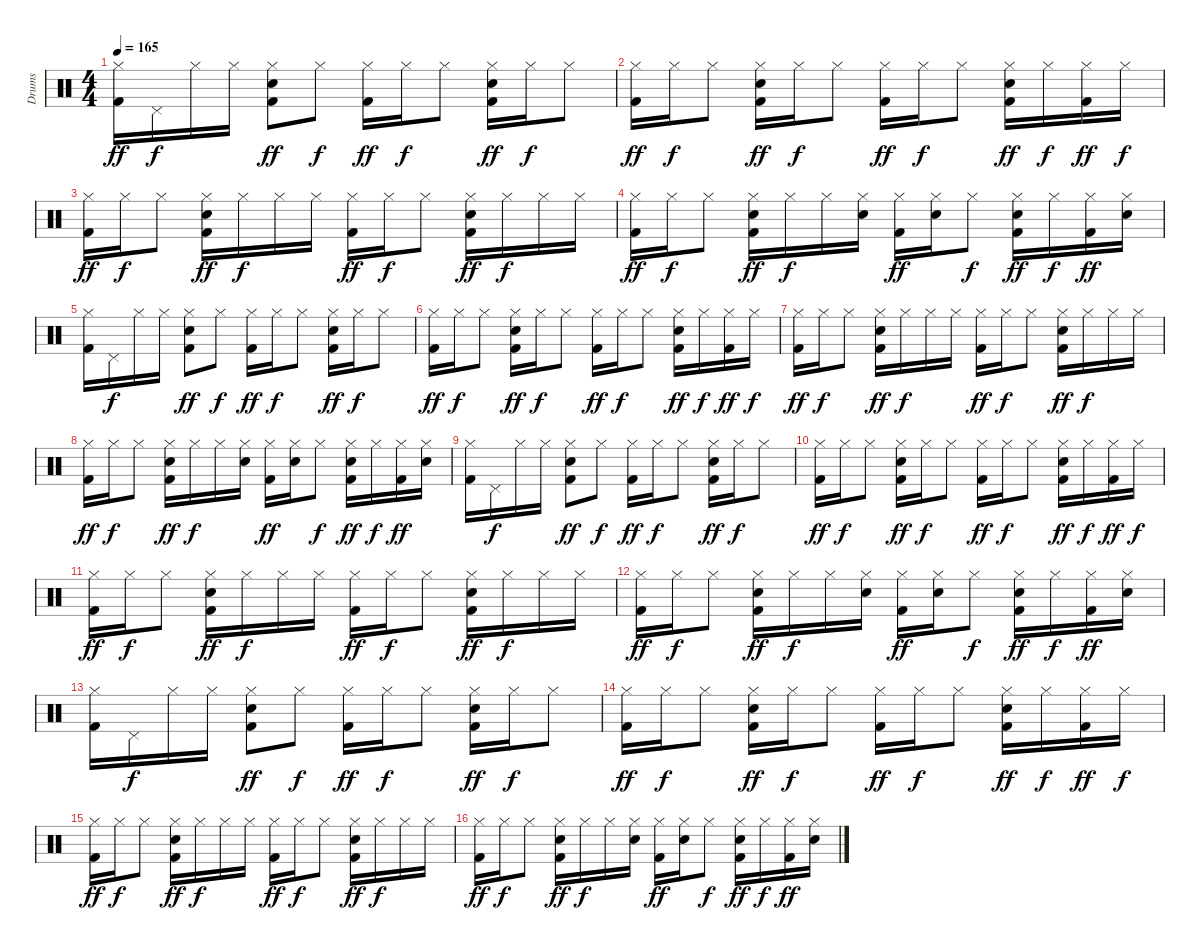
\track ("Drums" "Drums") {instrument percussion}
\staff {score}
\articulation defaults
\ts (4 4)
\tempo 165
\clef neutral
\ks c
("Kick (hit) 2" "Hi-Hat (closed)").16{dy ff} "Pedal Hi-Hat (hit)".16{dy f} "Hi-Hat (closed)".16 "Hi-Hat (closed)".16 ("Kick (hit) 2" "Snare (hit) 2" "Hi-Hat (closed)").8{dy ff} "Hi-Hat (closed)".8{dy f} ("Kick (hit) 2" "Hi-Hat (closed)").16{dy ff} "Hi-Hat (closed)".16{dy f} "Hi-Hat (closed)".8 ("Kick (hit) 2" "Snare (hit) 2" "Hi-Hat (closed)").16{dy ff} "Hi-Hat (closed)".16{dy f} "Hi-Hat (closed)".8 |
("Kick (hit) 2" "Hi-Hat (closed)").16{dy ff} "Hi-Hat (closed)".16{dy f} "Hi-Hat (closed)".8 ("Kick (hit) 2" "Snare (hit) 2" "Hi-Hat (closed)").16{dy ff} "Hi-Hat (closed)".16{dy f} "Hi-Hat (closed)".8 ("Kick (hit) 2" "Hi-Hat (closed)").16{dy ff} "Hi-Hat (closed)".16{dy f} "Hi-Hat (closed)".8 ("Kick (hit) 2" "Snare (hit) 2" "Hi-Hat (closed)").16{dy ff} "Hi-Hat (closed)".16{dy f} ("Kick (hit) 2" "Hi-Hat (closed)").16{dy ff} "Hi-Hat (closed)".16{dy f} |
("Kick (hit) 2" "Hi-Hat (closed)").16{dy ff} "Hi-Hat (closed)".16{dy f} "Hi-Hat (closed)".8 ("Kick (hit) 2" "Snare (hit) 2" "Hi-Hat (closed)").16{dy ff} "Hi-Hat (closed)".16{dy f} "Hi-Hat (closed)".16 "Hi-Hat (closed)".16 ("Kick (hit) 2" "Hi-Hat (closed)").16{dy ff} "Hi-Hat (closed)".16{dy f} "Hi-Hat (closed)".8 ("Kick (hit) 2" "Snare (hit) 2" "Hi-Hat (closed)").16{dy ff} "Hi-Hat (closed)".16{dy f} "Hi-Hat (closed)".16 "Hi-Hat (closed)".16 |
("Kick (hit) 2" "Hi-Hat (closed)").16{dy ff} "Hi-Hat (closed)".16{dy f} "Hi-Hat (closed)".8 ("Kick (hit) 2" "Snare (hit) 2" "Hi-Hat (closed)").16{dy ff} "Hi-Hat (closed)".16{dy f} "Hi-Hat (closed)".16 ("Snare (hit) 2" "Hi-Hat (closed)").16 ("Kick (hit) 2" "Hi-Hat (closed)").16{dy ff} ("Snare (hit) 2" "Hi-Hat (closed)").16 "Hi-Hat (closed)".8{dy f} ("Kick (hit) 2" "Snare (hit) 2" "Hi-Hat (closed)").16{dy ff} "Hi-Hat (closed)".16{dy f} ("Kick (hit) 2" "Hi-Hat (closed)").16{dy ff} ("Snare (hit) 2" "Hi-Hat (closed)").16 |
("Kick (hit) 2" "Hi-Hat (closed)").16 "Pedal Hi-Hat (hit)".16{dy f} "Hi-Hat (closed)".16 "Hi-Hat (closed)".16 ("Kick (hit) 2" "Snare (hit) 2" "Hi-Hat (closed)").8{dy ff} "Hi-Hat (closed)".8{dy f} ("Kick (hit) 2" "Hi-Hat (closed)").16{dy ff} "Hi-Hat (closed)".16{dy f} "Hi-Hat (closed)".8 ("Kick (hit) 2" "Snare (hit) 2" "Hi-Hat (closed)").16{dy ff} "Hi-Hat (closed)".16{dy f} "Hi-Hat (closed)".8 |
("Kick (hit) 2" "Hi-Hat (closed)").16{dy ff} "Hi-Hat (closed)".16{dy f} "Hi-Hat (closed)".8 ("Kick (hit) 2" "Snare (hit) 2" "Hi-Hat (closed)").16{dy ff} "Hi-Hat (closed)".16{dy f} "Hi-Hat (closed)".8 ("Kick (hit) 2" "Hi-Hat (closed)").16{dy ff} "Hi-Hat (closed)".16{dy f} "Hi-Hat (closed)".8 ("Kick (hit) 2" "Snare (hit) 2" "Hi-Hat (closed)").16{dy ff} "Hi-Hat (closed)".16{dy f} ("Kick (hit) 2" "Hi-Hat (closed)").16{dy ff} "Hi-Hat (closed)".16{dy f} |
("Kick (hit) 2" "Hi-Hat (closed)").16{dy ff} "Hi-Hat (closed)".16{dy f} "Hi-Hat (closed)".8 ("Kick (hit) 2" "Snare (hit) 2" "Hi-Hat (closed)").16{dy ff} "Hi-Hat (closed)".16{dy f} "Hi-Hat (closed)".16 "Hi-Hat (closed)".16 ("Kick (hit) 2" "Hi-Hat (closed)").16{dy ff} "Hi-Hat (closed)".16{dy f} "Hi-Hat (closed)".8 ("Kick (hit) 2" "Snare (hit) 2" "Hi-Hat (closed)").16{dy ff} "Hi-Hat (closed)".16{dy f} "Hi-Hat (closed)".16 "Hi-Hat (closed)".16 |
("Kick (hit) 2" "Hi-Hat (closed)").16{dy ff} "Hi-Hat (closed)".16{dy f} "Hi-Hat (closed)".8 ("Kick (hit) 2" "Snare (hit) 2" "Hi-Hat (closed)").16{dy ff} "Hi-Hat (closed)".16{dy f} "Hi-Hat (closed)".16 ("Snare (hit) 2" "Hi-Hat (closed)").16 ("Kick (hit) 2" "Hi-Hat (closed)").16{dy ff} ("Snare (hit) 2" "Hi-Hat (closed)").16 "Hi-Hat (closed)".8{dy f} ("Kick (hit) 2" "Snare (hit) 2" "Hi-Hat (closed)").16{dy ff} "Hi-Hat (closed)".16{dy f} ("Kick (hit) 2" "Hi-Hat (closed)").16{dy ff} ("Snare (hit) 2" "Hi-Hat (closed)").16 |
("Kick (hit) 2" "Hi-Hat (closed)").16 "Pedal Hi-Hat (hit)".16{dy f} "Hi-Hat (closed)".16 "Hi-Hat (closed)".16 ("Kick (hit) 2" "Snare (hit) 2" "Hi-Hat (closed)").8{dy ff} "Hi-Hat (closed)".8{dy f} ("Kick (hit) 2" "Hi-Hat (closed)").16{dy ff} "Hi-Hat (closed)".16{dy f} "Hi-Hat (closed)".8 ("Kick (hit) 2" "Snare (hit) 2" "Hi-Hat (closed)").16{dy ff} "Hi-Hat (closed)".16{dy f} "Hi-Hat (closed)".8 |
("Kick (hit) 2" "Hi-Hat (closed)").16{dy ff} "Hi-Hat (closed)".16{dy f} "Hi-Hat (closed)".8 ("Kick (hit) 2" "Snare (hit) 2" "Hi-Hat (closed)").16{dy ff} "Hi-Hat (closed)".16{dy f} "Hi-Hat (closed)".8 ("Kick (hit) 2" "Hi-Hat (closed)").16{dy ff} "Hi-Hat (closed)".16{dy f} "Hi-Hat (closed)".8 ("Kick (hit) 2" "Snare (hit) 2" "Hi-Hat (closed)").16{dy ff} "Hi-Hat (closed)".16{dy f} ("Kick (hit) 2" "Hi-Hat (closed)").16{dy ff} "Hi-Hat (closed)".16{dy f} |
("Kick (hit) 2" "Hi-Hat (closed)").16{dy ff} "Hi-Hat (closed)".16{dy f} "Hi-Hat (closed)".8 ("Kick (hit) 2" "Snare (hit) 2" "Hi-Hat (closed)").16{dy ff} "Hi-Hat (closed)".16{dy f} "Hi-Hat (closed)".16 "Hi-Hat (closed)".16 ("Kick (hit) 2" "Hi-Hat (closed)").16{dy ff} "Hi-Hat (closed)".16{dy f} "Hi-Hat (closed)".8 ("Kick (hit) 2" "Snare (hit) 2" "Hi-Hat (closed)").16{dy ff} "Hi-Hat (closed)".16{dy f} "Hi-Hat (closed)".16 "Hi-Hat (closed)".16 |
("Kick (hit) 2" "Hi-Hat (closed)").16{dy ff} "Hi-Hat (closed)".16{dy f} "Hi-Hat (closed)".8 ("Kick (hit) 2" "Snare (hit) 2" "Hi-Hat (closed)").16{dy ff} "Hi-Hat (closed)".16{dy f} "Hi-Hat (closed)".16 ("Snare (hit) 2" "Hi-Hat (closed)").16 ("Kick (hit) 2" "Hi-Hat (closed)").16{dy ff} ("Snare (hit) 2" "Hi-Hat (closed)").16 "Hi-Hat (closed)".8{dy f} ("Kick (hit) 2" "Snare (hit) 2" "Hi-Hat (closed)").16{dy ff} "Hi-Hat (closed)".16{dy f} ("Kick (hit) 2" "Hi-Hat (closed)").16{dy ff} ("Snare (hit) 2" "Hi-Hat (closed)").16 |
("Kick (hit) 2" "Hi-Hat (closed)").16 "Pedal Hi-Hat (hit)".16{dy f} "Hi-Hat (closed)".16 "Hi-Hat (closed)".16 ("Kick (hit) 2" "Snare (hit) 2" "Hi-Hat (closed)").8{dy ff} "Hi-Hat (closed)".8{dy f} ("Kick (hit) 2" "Hi-Hat (closed)").16{dy ff} "Hi-Hat (closed)".16{dy f} "Hi-Hat (closed)".8 ("Kick (hit) 2" "Snare (hit) 2" "Hi-Hat (closed)").16{dy ff} "Hi-Hat (closed)".16{dy f} "Hi-Hat (closed)".8 |
("Kick (hit) 2" "Hi-Hat (closed)").16{dy ff} "Hi-Hat (closed)".16{dy f} "Hi-Hat (closed)".8 ("Kick (hit) 2" "Snare (hit) 2" "Hi-Hat (closed)").16{dy ff} "Hi-Hat (closed)".16{dy f} "Hi-Hat (closed)".8 ("Kick (hit) 2" "Hi-Hat (closed)").16{dy ff} "Hi-Hat (closed)".16{dy f} "Hi-Hat (closed)".8 ("Kick (hit) 2" "Snare (hit) 2" "Hi-Hat (closed)").16{dy ff} "Hi-Hat (closed)".16{dy f} ("Kick (hit) 2" "Hi-Hat (closed)").16{dy ff} "Hi-Hat (closed)".16{dy f} |
("Kick (hit) 2" "Hi-Hat (closed)").16{dy ff} "Hi-Hat (closed)".16{dy f} "Hi-Hat (closed)".8 ("Kick (hit) 2" "Snare (hit) 2" "Hi-Hat (closed)").16{dy ff} "Hi-Hat (closed)".16{dy f} "Hi-Hat (closed)".16 "Hi-Hat (closed)".16 ("Kick (hit) 2" "Hi-Hat (closed)").16{dy ff} "Hi-Hat (closed)".16{dy f} "Hi-Hat (closed)".8 ("Kick (hit) 2" "Snare (hit) 2" "Hi-Hat (closed)").16{dy ff} "Hi-Hat (closed)".16{dy f} "Hi-Hat (closed)".16 "Hi-Hat (closed)".16 |
("Kick (hit) 2" "Hi-Hat (closed)").16{dy ff} "Hi-Hat (closed)".16{dy f} "Hi-Hat (closed)".8 ("Kick (hit) 2" "Snare (hit) 2" "Hi-Hat (closed)").16{dy ff} "Hi-Hat (closed)".16{dy f} "Hi-Hat (closed)".16 ("Snare (hit) 2" "Hi-Hat (closed)").16 ("Kick (hit) 2" "Hi-Hat (closed)").16{dy ff} ("Snare (hit) 2" "Hi-Hat (closed)").16 "Hi-Hat (closed)".8{dy f} ("Kick (hit) 2" "Snare (hit) 2" "Hi-Hat (closed)").16{dy ff} "Hi-Hat (closed)".16{dy f} ("Kick (hit) 2" "Hi-Hat (closed)").16{dy ff} ("Snare (hit) 2" "Hi-Hat (closed)").16
